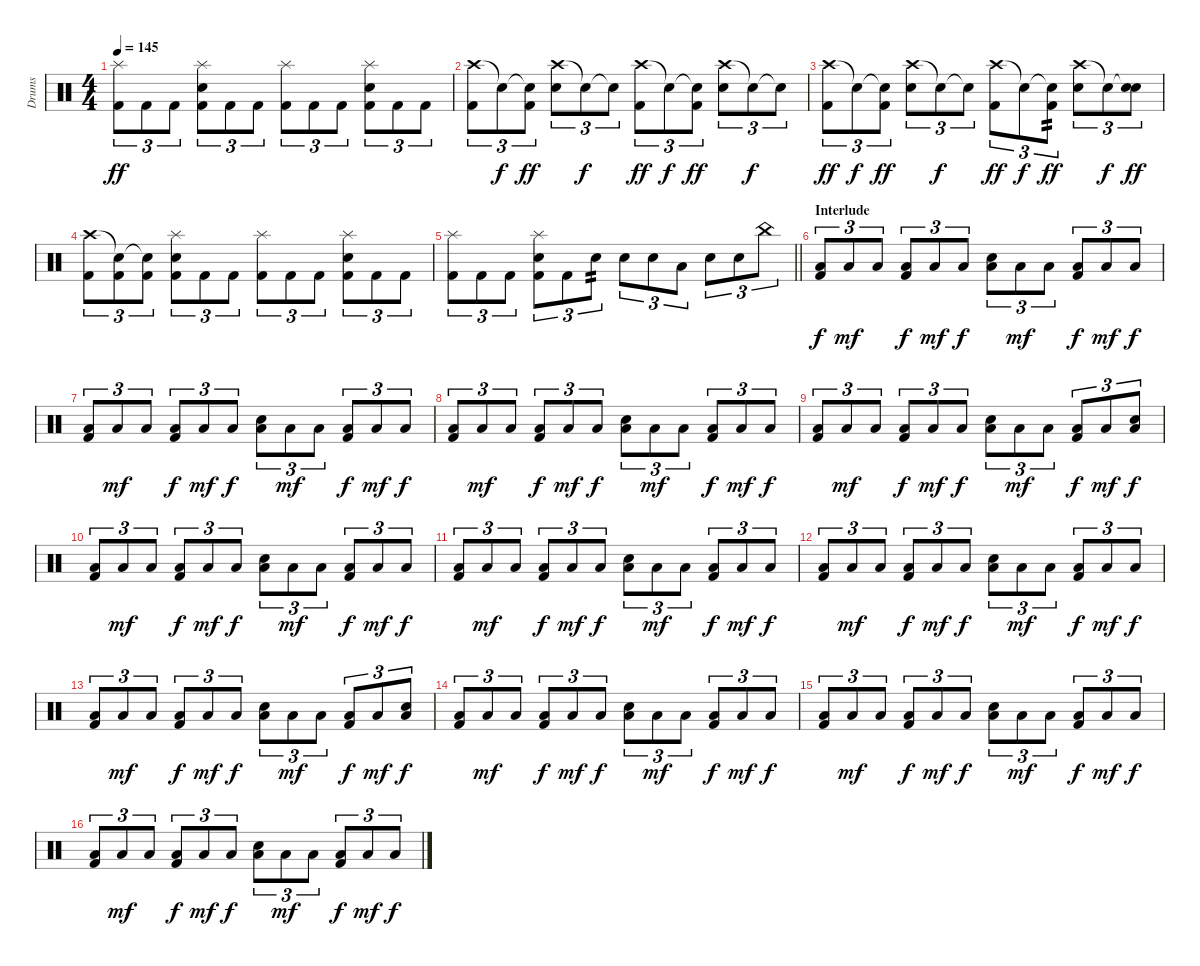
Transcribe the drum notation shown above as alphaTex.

\track ("Drums" "Drums") {instrument percussion}
\staff {score}
\articulation defaults
\ts (4 4)
\tempo 145
\clef neutral
\ks c
("Splash (hit)" "Kick (hit) 2").8{tu (3 2) dy ff} "Kick (hit) 2".8{tu (3 2)} "Kick (hit) 2".8{tu (3 2)} ("Splash (hit)" "Snare (hit) 2" "Kick (hit) 2").8{tu (3 2)} "Kick (hit) 2".8{tu (3 2)} "Kick (hit) 2".8{tu (3 2)} ("Splash (hit)" "Kick (hit) 2").8{tu (3 2)} "Kick (hit) 2".8{tu (3 2)} "Kick (hit) 2".8{tu (3 2)} ("Splash (hit)" "Kick (hit) 2" "Snare (hit) 2").8{tu (3 2)} "Kick (hit) 2".8{tu (3 2)} "Kick (hit) 2".8{tu (3 2)} |
("Crash high (hit)" "Kick (hit) 2").8{tu (3 2)} "Snare (hit)"{t}.8{tu (3 2) dy f} ("Snare (hit)"{t} "Kick (hit) 2").8{tu (3 2) dy ff} ("Crash high (hit)" "Snare (hit) 2").8{tu (3 2)} "Snare (hit)"{t}.8{tu (3 2) dy f} "Snare (hit)"{t}.8{tu (3 2)} ("Crash high (hit)" "Kick (hit) 2").8{tu (3 2) dy ff} "Snare (hit)"{t}.8{tu (3 2) dy f} ("Snare (hit)"{t} "Kick (hit) 2").8{tu (3 2) dy ff} ("Crash high (hit)" "Snare (hit) 2").8{tu (3 2)} "Snare (hit)"{t}.8{tu (3 2) dy f} "Snare (hit)"{t}.8{tu (3 2)} |
("Crash high (hit)" "Kick (hit) 2").8{tu (3 2) dy ff} "Snare (hit)"{t}.8{tu (3 2) dy f} ("Snare (hit)"{t} "Kick (hit) 2").8{tu (3 2) dy ff} ("Crash high (hit)" "Snare (hit) 2").8{tu (3 2)} "Snare (hit)"{t}.8{tu (3 2) dy f} "Snare (hit)"{t}.8{tu (3 2)} ("Crash high (hit)" "Kick (hit) 2").8{tu (3 2) dy ff} "Snare (hit)"{t}.8{tu (3 2) dy f} ("Snare (hit)"{t} "Kick (hit) 2").8{tu (3 2) tp 2 dy ff} ("Crash high (hit)" "Snare (hit) 2").8{tu (3 2)} "Snare (hit)"{t}.8{tu (3 2) dy f} ("Snare (hit)"{t} "Snare (hit) 2").8{tu (3 2) dy ff} |
("Crash high (hit)" "Kick (hit) 2").8{tu (3 2)} ("Snare (hit)"{t} "Kick (hit) 2").8{tu (3 2)} ("Snare (hit)"{t} "Kick (hit) 2").8{tu (3 2)} ("Splash (hit)" "Snare (hit) 2" "Kick (hit) 2").8{tu (3 2)} "Kick (hit) 2".8{tu (3 2)} "Kick (hit) 2".8{tu (3 2)} ("Splash (hit)" "Kick (hit) 2").8{tu (3 2)} "Kick (hit) 2".8{tu (3 2)} "Kick (hit) 2".8{tu (3 2)} ("Splash (hit)" "Kick (hit) 2" "Snare (hit) 2").8{tu (3 2)} "Kick (hit) 2".8{tu (3 2)} "Kick (hit) 2".8{tu (3 2)} |
\barLineRight lightlight
("Splash (hit)" "Kick (hit) 2").8{tu (3 2)} "Kick (hit) 2".8{tu (3 2)} "Kick (hit) 2".8{tu (3 2)} ("Splash (hit)" "Snare (hit) 2" "Kick (hit) 2").8{tu (3 2)} "Kick (hit) 2".8{tu (3 2)} "Electric Snare (hit)".8{tu (3 2) tp 2} "Electric Snare (hit)".8{tu (3 2)} "Electric Snare (hit)".8{tu (3 2)} "Low Floor Tom (hit)".8{tu (3 2)} "Electric Snare (hit)".8{tu (3 2)} "Electric Snare (hit)".8{tu (3 2)} "China (hit)".8{tu (3 2)} |
\section ("" "Interlude")
("Kick (hit) 2" "Low Floor Tom (hit)").8{tu (3 2) dy f} "Low Floor Tom (hit)".8{tu (3 2) dy mf} "Low Floor Tom (hit)".8{tu (3 2)} ("Kick (hit) 2" "Low Floor Tom (hit)").8{tu (3 2) dy f} "Low Floor Tom (hit)".8{tu (3 2) dy mf} "Low Floor Tom (hit)".8{tu (3 2) dy f} ("Snare (hit) 2" "Low Floor Tom (hit)").8{tu (3 2)} "Low Floor Tom (hit)".8{tu (3 2) dy mf} "Low Floor Tom (hit)".8{tu (3 2)} ("Kick (hit) 2" "Low Floor Tom (hit)").8{tu (3 2) dy f} "Low Floor Tom (hit)".8{tu (3 2) dy mf} "Low Floor Tom (hit)".8{tu (3 2) dy f} |
("Kick (hit) 2" "Low Floor Tom (hit)").8{tu (3 2)} "Low Floor Tom (hit)".8{tu (3 2) dy mf} "Low Floor Tom (hit)".8{tu (3 2)} ("Kick (hit) 2" "Low Floor Tom (hit)").8{tu (3 2) dy f} "Low Floor Tom (hit)".8{tu (3 2) dy mf} "Low Floor Tom (hit)".8{tu (3 2) dy f} ("Snare (hit) 2" "Low Floor Tom (hit)").8{tu (3 2)} "Low Floor Tom (hit)".8{tu (3 2) dy mf} "Low Floor Tom (hit)".8{tu (3 2)} ("Kick (hit) 2" "Low Floor Tom (hit)").8{tu (3 2) dy f} "Low Floor Tom (hit)".8{tu (3 2) dy mf} "Low Floor Tom (hit)".8{tu (3 2) dy f} |
("Kick (hit) 2" "Low Floor Tom (hit)").8{tu (3 2)} "Low Floor Tom (hit)".8{tu (3 2) dy mf} "Low Floor Tom (hit)".8{tu (3 2)} ("Kick (hit) 2" "Low Floor Tom (hit)").8{tu (3 2) dy f} "Low Floor Tom (hit)".8{tu (3 2) dy mf} "Low Floor Tom (hit)".8{tu (3 2) dy f} ("Snare (hit) 2" "Low Floor Tom (hit)").8{tu (3 2)} "Low Floor Tom (hit)".8{tu (3 2) dy mf} "Low Floor Tom (hit)".8{tu (3 2)} ("Kick (hit) 2" "Low Floor Tom (hit)").8{tu (3 2) dy f} "Low Floor Tom (hit)".8{tu (3 2) dy mf} "Low Floor Tom (hit)".8{tu (3 2) dy f} |
("Kick (hit) 2" "Low Floor Tom (hit)").8{tu (3 2)} "Low Floor Tom (hit)".8{tu (3 2) dy mf} "Low Floor Tom (hit)".8{tu (3 2)} ("Kick (hit) 2" "Low Floor Tom (hit)").8{tu (3 2) dy f} "Low Floor Tom (hit)".8{tu (3 2) dy mf} "Low Floor Tom (hit)".8{tu (3 2) dy f} ("Snare (hit) 2" "Low Floor Tom (hit)").8{tu (3 2)} "Low Floor Tom (hit)".8{tu (3 2) dy mf} "Low Floor Tom (hit)".8{tu (3 2)} ("Kick (hit) 2" "Low Floor Tom (hit)").8{tu (3 2) dy f} "Low Floor Tom (hit)".8{tu (3 2) dy mf} ("Electric Snare (hit)" "Low Floor Tom (hit)").8{tu (3 2) dy f} |
("Kick (hit) 2" "Low Floor Tom (hit)").8{tu (3 2)} "Low Floor Tom (hit)".8{tu (3 2) dy mf} "Low Floor Tom (hit)".8{tu (3 2)} ("Kick (hit) 2" "Low Floor Tom (hit)").8{tu (3 2) dy f} "Low Floor Tom (hit)".8{tu (3 2) dy mf} "Low Floor Tom (hit)".8{tu (3 2) dy f} ("Snare (hit) 2" "Low Floor Tom (hit)").8{tu (3 2)} "Low Floor Tom (hit)".8{tu (3 2) dy mf} "Low Floor Tom (hit)".8{tu (3 2)} ("Kick (hit) 2" "Low Floor Tom (hit)").8{tu (3 2) dy f} "Low Floor Tom (hit)".8{tu (3 2) dy mf} "Low Floor Tom (hit)".8{tu (3 2) dy f} |
("Kick (hit) 2" "Low Floor Tom (hit)").8{tu (3 2)} "Low Floor Tom (hit)".8{tu (3 2) dy mf} "Low Floor Tom (hit)".8{tu (3 2)} ("Kick (hit) 2" "Low Floor Tom (hit)").8{tu (3 2) dy f} "Low Floor Tom (hit)".8{tu (3 2) dy mf} "Low Floor Tom (hit)".8{tu (3 2) dy f} ("Snare (hit) 2" "Low Floor Tom (hit)").8{tu (3 2)} "Low Floor Tom (hit)".8{tu (3 2) dy mf} "Low Floor Tom (hit)".8{tu (3 2)} ("Kick (hit) 2" "Low Floor Tom (hit)").8{tu (3 2) dy f} "Low Floor Tom (hit)".8{tu (3 2) dy mf} "Low Floor Tom (hit)".8{tu (3 2) dy f} |
("Kick (hit) 2" "Low Floor Tom (hit)").8{tu (3 2)} "Low Floor Tom (hit)".8{tu (3 2) dy mf} "Low Floor Tom (hit)".8{tu (3 2)} ("Kick (hit) 2" "Low Floor Tom (hit)").8{tu (3 2) dy f} "Low Floor Tom (hit)".8{tu (3 2) dy mf} "Low Floor Tom (hit)".8{tu (3 2) dy f} ("Snare (hit) 2" "Low Floor Tom (hit)").8{tu (3 2)} "Low Floor Tom (hit)".8{tu (3 2) dy mf} "Low Floor Tom (hit)".8{tu (3 2)} ("Kick (hit) 2" "Low Floor Tom (hit)").8{tu (3 2) dy f} "Low Floor Tom (hit)".8{tu (3 2) dy mf} "Low Floor Tom (hit)".8{tu (3 2) dy f} |
("Kick (hit) 2" "Low Floor Tom (hit)").8{tu (3 2)} "Low Floor Tom (hit)".8{tu (3 2) dy mf} "Low Floor Tom (hit)".8{tu (3 2)} ("Kick (hit) 2" "Low Floor Tom (hit)").8{tu (3 2) dy f} "Low Floor Tom (hit)".8{tu (3 2) dy mf} "Low Floor Tom (hit)".8{tu (3 2) dy f} ("Snare (hit) 2" "Low Floor Tom (hit)").8{tu (3 2)} "Low Floor Tom (hit)".8{tu (3 2) dy mf} "Low Floor Tom (hit)".8{tu (3 2)} ("Kick (hit) 2" "Low Floor Tom (hit)").8{tu (3 2) dy f} "Low Floor Tom (hit)".8{tu (3 2) dy mf} ("Electric Snare (hit)" "Low Floor Tom (hit)").8{tu (3 2) dy f} |
("Kick (hit) 2" "Low Floor Tom (hit)").8{tu (3 2)} "Low Floor Tom (hit)".8{tu (3 2) dy mf} "Low Floor Tom (hit)".8{tu (3 2)} ("Kick (hit) 2" "Low Floor Tom (hit)").8{tu (3 2) dy f} "Low Floor Tom (hit)".8{tu (3 2) dy mf} "Low Floor Tom (hit)".8{tu (3 2) dy f} ("Snare (hit) 2" "Low Floor Tom (hit)").8{tu (3 2)} "Low Floor Tom (hit)".8{tu (3 2) dy mf} "Low Floor Tom (hit)".8{tu (3 2)} ("Kick (hit) 2" "Low Floor Tom (hit)").8{tu (3 2) dy f} "Low Floor Tom (hit)".8{tu (3 2) dy mf} "Low Floor Tom (hit)".8{tu (3 2) dy f} |
("Kick (hit) 2" "Low Floor Tom (hit)").8{tu (3 2)} "Low Floor Tom (hit)".8{tu (3 2) dy mf} "Low Floor Tom (hit)".8{tu (3 2)} ("Kick (hit) 2" "Low Floor Tom (hit)").8{tu (3 2) dy f} "Low Floor Tom (hit)".8{tu (3 2) dy mf} "Low Floor Tom (hit)".8{tu (3 2) dy f} ("Snare (hit) 2" "Low Floor Tom (hit)").8{tu (3 2)} "Low Floor Tom (hit)".8{tu (3 2) dy mf} "Low Floor Tom (hit)".8{tu (3 2)} ("Kick (hit) 2" "Low Floor Tom (hit)").8{tu (3 2) dy f} "Low Floor Tom (hit)".8{tu (3 2) dy mf} "Low Floor Tom (hit)".8{tu (3 2) dy f} |
("Kick (hit) 2" "Low Floor Tom (hit)").8{tu (3 2)} "Low Floor Tom (hit)".8{tu (3 2) dy mf} "Low Floor Tom (hit)".8{tu (3 2)} ("Kick (hit) 2" "Low Floor Tom (hit)").8{tu (3 2) dy f} "Low Floor Tom (hit)".8{tu (3 2) dy mf} "Low Floor Tom (hit)".8{tu (3 2) dy f} ("Snare (hit) 2" "Low Floor Tom (hit)").8{tu (3 2)} "Low Floor Tom (hit)".8{tu (3 2) dy mf} "Low Floor Tom (hit)".8{tu (3 2)} ("Kick (hit) 2" "Low Floor Tom (hit)").8{tu (3 2) dy f} "Low Floor Tom (hit)".8{tu (3 2) dy mf} "Low Floor Tom (hit)".8{tu (3 2) dy f}
